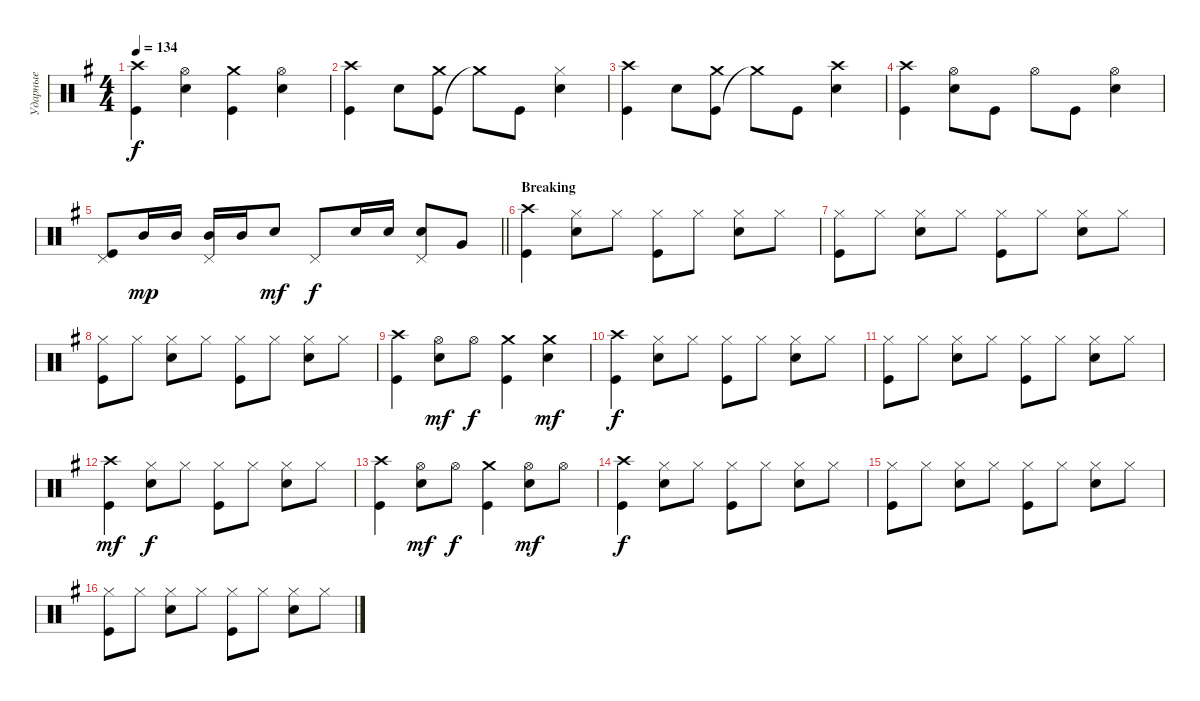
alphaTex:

\track ("Ударные" "Ударные") {instrument percussion}
\staff {score}
\articulation defaults
\ts (4 4)
\tempo 134
\clef neutral
\ks eminor
("Kick (hit)" "Crash high (hit)").4{dy f} ("Snare (hit) 2" "Hi-Hat (open)").4 ("Crash medium (hit)" "Kick (hit)").4 ("Snare (hit) 2" "Hi-Hat (open)").4 |
("Kick (hit)" "Crash high (hit)").4 "Snare (hit) 2".8 ("Kick (hit)" "Crash medium (hit)").8 "Crash medium (hit)"{t}.8 "Kick (hit)".8 ("Hi-Hat (closed)" "Snare (hit) 2").4 |
("Kick (hit)" "Crash high (hit)").4 "Snare (hit) 2".8 ("Kick (hit)" "Crash medium (hit)").8 "Crash medium (hit)"{t}.8 "Kick (hit)".8 ("Crash high (hit)" "Snare (hit) 2").4 |
("Kick (hit)" "Crash high (hit)").4 ("Snare (hit) 2" "Hi-Hat (open)").8 "Kick (hit)".8 "Hi-Hat (open)".8 "Kick (hit)".8 ("Snare (hit) 2" "Hi-Hat (open)").4 |
\barLineRight lightlight
("Kick (hit)" "Pedal Hi-Hat (hit)").8 "Mid Tom (hit)".16{dy mp} "Mid Tom (hit)".16 ("Mid Tom (hit)" "Pedal Hi-Hat (hit)").16 "Mid Tom (hit)".16 "Snare (hit) 2".8{dy mf} "Pedal Hi-Hat (hit)".8{dy f} "Snare (hit) 2".16 "Snare (hit) 2".16 ("Snare (hit) 2" "Pedal Hi-Hat (hit)").8 "Very Low Tom (hit)".8 |
\section ("" "Breaking")
("Crash high (hit)" "Kick (hit)").4 ("Hi-Hat (closed)" "Snare (hit) 2").8 "Hi-Hat (closed)".8 ("Hi-Hat (closed)" "Kick (hit)").8 "Hi-Hat (closed)".8 ("Hi-Hat (closed)" "Snare (hit) 2").8 "Hi-Hat (closed)".8 |
("Hi-Hat (closed)" "Kick (hit)").8 "Hi-Hat (closed)".8 ("Hi-Hat (closed)" "Snare (hit) 2").8 "Hi-Hat (closed)".8 ("Hi-Hat (closed)" "Kick (hit)").8 "Hi-Hat (closed)".8 ("Hi-Hat (closed)" "Snare (hit) 2").8 "Hi-Hat (closed)".8 |
("Hi-Hat (closed)" "Kick (hit)").8 "Hi-Hat (closed)".8 ("Hi-Hat (closed)" "Snare (hit) 2").8 "Hi-Hat (closed)".8 ("Hi-Hat (closed)" "Kick (hit)").8 "Hi-Hat (closed)".8 ("Hi-Hat (closed)" "Snare (hit) 2").8 "Hi-Hat (closed)".8 |
("Crash high (hit)" "Kick (hit)").4 ("Hi-Hat (open)" "Snare (hit) 2").8{dy mf} "Hi-Hat (open)".8{dy f} ("Crash medium (hit)" "Kick (hit)").4 ("Crash medium (hit)" "Snare (hit) 2").4{dy mf} |
("Crash high (hit)" "Kick (hit)").4{dy f} ("Hi-Hat (closed)" "Snare (hit) 2").8 "Hi-Hat (closed)".8 ("Hi-Hat (closed)" "Kick (hit)").8 "Hi-Hat (closed)".8 ("Hi-Hat (closed)" "Snare (hit) 2").8 "Hi-Hat (closed)".8 |
("Hi-Hat (closed)" "Kick (hit)").8 "Hi-Hat (closed)".8 ("Hi-Hat (closed)" "Snare (hit) 2").8 "Hi-Hat (closed)".8 ("Hi-Hat (closed)" "Kick (hit)").8 "Hi-Hat (closed)".8 ("Hi-Hat (closed)" "Snare (hit) 2").8 "Hi-Hat (closed)".8 |
("Crash high (hit)" "Kick (hit)").4{dy mf} ("Hi-Hat (closed)" "Snare (hit) 2").8{dy f} "Hi-Hat (closed)".8 ("Hi-Hat (closed)" "Kick (hit)").8 "Hi-Hat (closed)".8 ("Hi-Hat (closed)" "Snare (hit) 2").8 "Hi-Hat (closed)".8 |
("Crash high (hit)" "Kick (hit)").4 ("Hi-Hat (open)" "Snare (hit) 2").8{dy mf} "Hi-Hat (open)".8{dy f} ("Crash medium (hit)" "Kick (hit)").4 ("Snare (hit) 2" "Hi-Hat (open)").8{dy mf} "Hi-Hat (open)".8 |
("Crash high (hit)" "Kick (hit)").4{dy f} ("Hi-Hat (closed)" "Snare (hit) 2").8 "Hi-Hat (closed)".8 ("Hi-Hat (closed)" "Kick (hit)").8 "Hi-Hat (closed)".8 ("Hi-Hat (closed)" "Snare (hit) 2").8 "Hi-Hat (closed)".8 |
("Hi-Hat (closed)" "Kick (hit)").8 "Hi-Hat (closed)".8 ("Hi-Hat (closed)" "Snare (hit) 2").8 "Hi-Hat (closed)".8 ("Hi-Hat (closed)" "Kick (hit)").8 "Hi-Hat (closed)".8 ("Hi-Hat (closed)" "Snare (hit) 2").8 "Hi-Hat (closed)".8 |
("Hi-Hat (closed)" "Kick (hit)").8 "Hi-Hat (closed)".8 ("Hi-Hat (closed)" "Snare (hit) 2").8 "Hi-Hat (closed)".8 ("Hi-Hat (closed)" "Kick (hit)").8 "Hi-Hat (closed)".8 ("Hi-Hat (closed)" "Snare (hit) 2").8 "Hi-Hat (closed)".8
